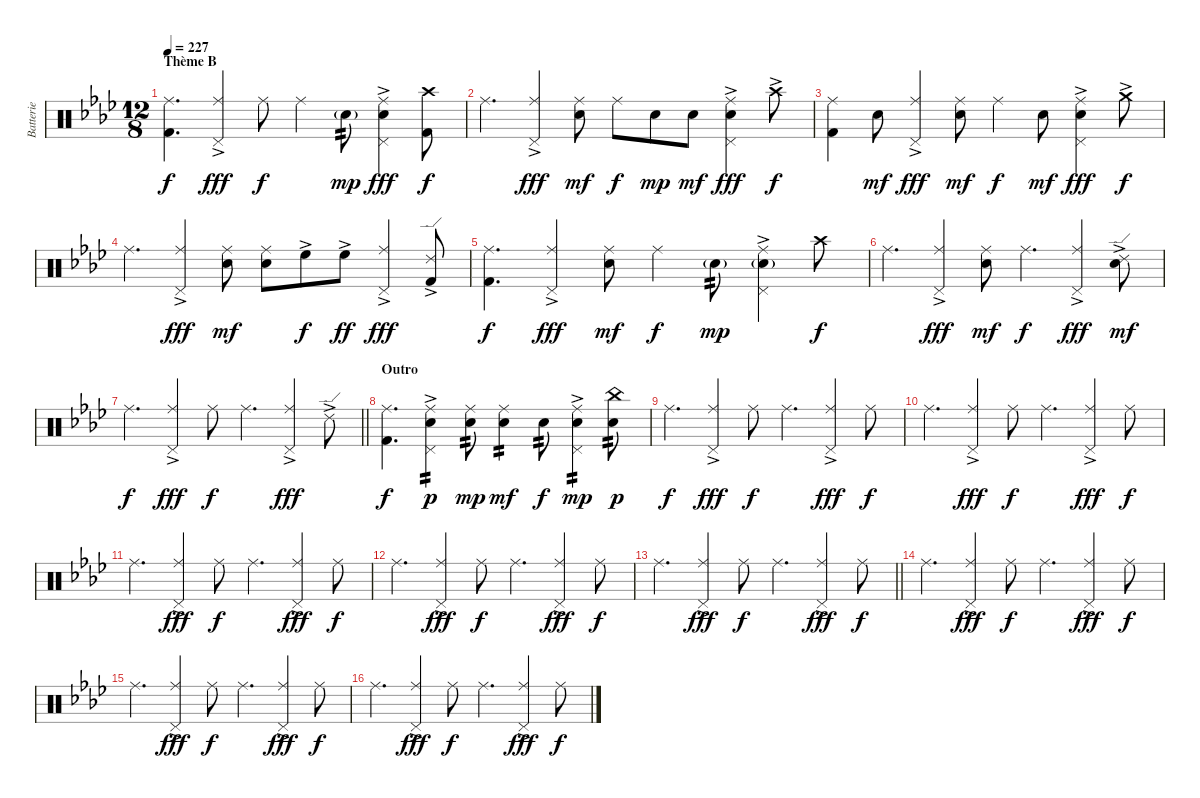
\track ("Batterie" "Batterie") {instrument percussion}
\staff {score}
\articulation defaults
\ts (12 8)
\section ("" "Thème B")
\tempo 227
\clef neutral
\ks fminor
("Ride (middle)" "Kick (hit) 2").4{d dy f volume 13 balance 8} ("Ride (middle)" "Pedal Hi-Hat (hit)"{ac}).4{dy fff} "Ride (middle)".8{dy f} "Ride (middle)".4 "Snare (hit) 2"{g}.8{tp 2 dy mp} ("Ride (middle)" "Pedal Hi-Hat (hit)"{ac} "Snare (hit) 2").4{dy fff} ("Crash high (hit)" "Kick (hit) 2").8{dy f} |
"Ride (middle)".4{d} ("Ride (middle)" "Pedal Hi-Hat (hit)"{ac}).4{dy fff} ("Ride (middle)" "Snare (hit) 2").8{dy mf} "Ride (middle)".8{dy f} "Snare (hit) 2".8{dy mp} "Snare (hit) 2".8{dy mf} ("Ride (middle)" "Pedal Hi-Hat (hit)"{ac} "Snare (hit) 2").4{dy fff} "Crash high (hit)"{ac}.8{dy f} |
("Ride (middle)" "Kick (hit) 2").4 "Snare (hit) 2".8{dy mf} ("Ride (middle)" "Pedal Hi-Hat (hit)"{ac}).4{dy fff} ("Ride (middle)" "Snare (hit) 2").8{dy mf} "Ride (middle)".4{dy f} "Snare (hit) 2".8{dy mf} ("Ride (middle)" "Pedal Hi-Hat (hit)"{ac} "Snare (hit) 2").4{dy fff} "Crash medium (hit)"{ac}.8{dy f} |
"Ride (middle)".4{d} ("Ride (middle)" "Pedal Hi-Hat (hit)"{ac}).4{dy fff} ("Ride (middle)" "Snare (hit) 2").8{dy mf} ("Ride (middle)" "Snare (hit) 2").8 "High Floor Tom (hit)"{ac}.8{dy f} "High Floor Tom (hit)"{ac}.8{dy ff} ("Ride (middle)" "Pedal Hi-Hat (hit)"{ac}).4{dy fff} ("Ride (edge) 2"{ac} "Kick (hit) 2").8 |
("Ride (middle)" "Kick (hit) 2").4{d dy f} ("Ride (middle)" "Pedal Hi-Hat (hit)"{ac}).4{dy fff} ("Ride (middle)" "Snare (hit) 2").8{dy mf} "Ride (middle)".4{dy f} "Snare (hit) 2"{g}.8{tp 2 dy mp} ("Ride (middle)" "Pedal Hi-Hat (hit)"{ac} "Snare (hit) 2"{g}).4 "Crash high (hit)".8{dy f} |
"Ride (middle)".4{d} ("Ride (middle)" "Pedal Hi-Hat (hit)"{ac}).4{dy fff} ("Ride (middle)" "Snare (hit) 2").8{dy mf} "Ride (middle)".4{d dy f} ("Ride (middle)" "Pedal Hi-Hat (hit)"{ac}).4{dy fff} ("Ride (edge) 2"{ac} "Snare (hit) 2").8{dy mf} |
\barLineRight lightlight "Ride (middle)".4{d dy f}
("Ride (middle)" "Pedal Hi-Hat (hit)"{ac}).4{dy fff} "Ride (middle)".8{dy f} "Ride (middle)".4{d} ("Ride (middle)" "Pedal Hi-Hat (hit)"{ac}).4{dy fff} "Ride (edge) 2"{ac}.8 |
\section ("" "Outro")
("Ride (middle)" "Kick (hit) 2").4{d dy f volume 11 balance 8} ("Ride (middle)" "Pedal Hi-Hat (hit)"{ac} "Snare (hit) 2").4{tp 2 dy p} ("Ride (middle)" "Snare (hit) 2").8{tp 2 dy mp} ("Ride (middle)" "Snare (hit) 2").4{tp 2 dy mf} "Snare (hit) 2".8{tp 2 dy f} ("Ride (middle)" "Pedal Hi-Hat (hit)"{ac} "Snare (hit) 2").4{tp 2 dy mp} ("China (hit)" "Snare (hit) 2").8{tp 2 dy p} |
"Ride (middle)".4{d dy f} ("Ride (middle)" "Pedal Hi-Hat (hit)"{ac}).4{dy fff} "Ride (middle)".8{dy f} "Ride (middle)".4{d} ("Ride (middle)" "Pedal Hi-Hat (hit)"{ac}).4{dy fff} "Ride (middle)".8{dy f} |
"Ride (middle)".4{d} ("Ride (middle)" "Pedal Hi-Hat (hit)"{ac}).4{dy fff} "Ride (middle)".8{dy f} "Ride (middle)".4{d} ("Ride (middle)" "Pedal Hi-Hat (hit)"{ac}).4{dy fff} "Ride (middle)".8{dy f} |
"Ride (middle)".4{d} ("Ride (middle)" "Pedal Hi-Hat (hit)"{ac}).4{dy fff} "Ride (middle)".8{dy f} "Ride (middle)".4{d} ("Ride (middle)" "Pedal Hi-Hat (hit)"{ac}).4{dy fff} "Ride (middle)".8{dy f} |
"Ride (middle)".4{d} ("Ride (middle)" "Pedal Hi-Hat (hit)"{ac}).4{dy fff} "Ride (middle)".8{dy f} "Ride (middle)".4{d} ("Ride (middle)" "Pedal Hi-Hat (hit)"{ac}).4{dy fff} "Ride (middle)".8{dy f} |
\barLineRight lightlight "Ride (middle)".4{d}
("Ride (middle)" "Pedal Hi-Hat (hit)"{ac}).4{dy fff} "Ride (middle)".8{dy f} "Ride (middle)".4{d} ("Ride (middle)" "Pedal Hi-Hat (hit)"{ac}).4{dy fff} "Ride (middle)".8{dy f} |
"Ride (middle)".4{d volume 6 balance 8} ("Ride (middle)" "Pedal Hi-Hat (hit)"{ac}).4{dy fff} "Ride (middle)".8{dy f} "Ride (middle)".4{d} ("Ride (middle)" "Pedal Hi-Hat (hit)"{ac}).4{dy fff} "Ride (middle)".8{dy f} |
"Ride (middle)".4{d} ("Ride (middle)" "Pedal Hi-Hat (hit)"{ac}).4{dy fff} "Ride (middle)".8{dy f} "Ride (middle)".4{d} ("Ride (middle)" "Pedal Hi-Hat (hit)"{ac}).4{dy fff} "Ride (middle)".8{dy f} |
"Ride (middle)".4{d} ("Ride (middle)" "Pedal Hi-Hat (hit)"{ac}).4{dy fff} "Ride (middle)".8{dy f} "Ride (middle)".4{d} ("Ride (middle)" "Pedal Hi-Hat (hit)"{ac}).4{dy fff} "Ride (middle)".8{dy f}
